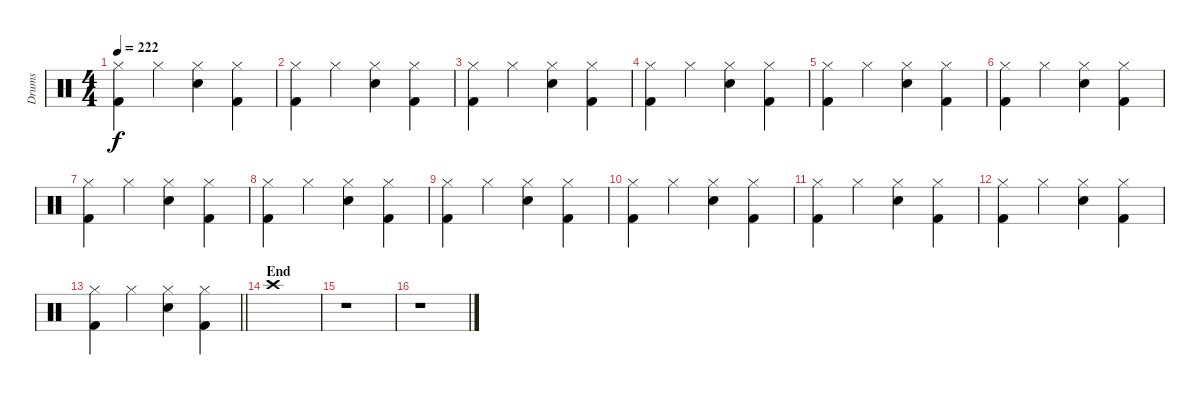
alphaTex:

\track ("Drums" "Drums") {instrument percussion}
\staff {score}
\articulation defaults
\ts (4 4)
\tempo 222
\clef neutral
\ks c
("Hi-Hat (closed)" "Kick (hit) 2").4{dy f} "Hi-Hat (closed)".4 ("Hi-Hat (closed)" "Electric Snare (hit)").4 ("Hi-Hat (closed)" "Kick (hit) 2").4 |
("Hi-Hat (closed)" "Kick (hit) 2").4 "Hi-Hat (closed)".4 ("Hi-Hat (closed)" "Electric Snare (hit)").4 ("Hi-Hat (closed)" "Kick (hit) 2").4 |
("Hi-Hat (closed)" "Kick (hit) 2").4 "Hi-Hat (closed)".4 ("Hi-Hat (closed)" "Electric Snare (hit)").4 ("Hi-Hat (closed)" "Kick (hit) 2").4 |
("Hi-Hat (closed)" "Kick (hit) 2").4 "Hi-Hat (closed)".4 ("Hi-Hat (closed)" "Electric Snare (hit)").4 ("Hi-Hat (closed)" "Kick (hit) 2").4 |
("Hi-Hat (closed)" "Kick (hit) 2").4 "Hi-Hat (closed)".4 ("Hi-Hat (closed)" "Electric Snare (hit)").4 ("Hi-Hat (closed)" "Kick (hit) 2").4 |
("Hi-Hat (closed)" "Kick (hit) 2").4 "Hi-Hat (closed)".4 ("Hi-Hat (closed)" "Electric Snare (hit)").4 ("Hi-Hat (closed)" "Kick (hit) 2").4 |
("Hi-Hat (closed)" "Kick (hit) 2").4 "Hi-Hat (closed)".4 ("Hi-Hat (closed)" "Electric Snare (hit)").4 ("Hi-Hat (closed)" "Kick (hit) 2").4 |
("Hi-Hat (closed)" "Kick (hit) 2").4 "Hi-Hat (closed)".4 ("Hi-Hat (closed)" "Electric Snare (hit)").4 ("Hi-Hat (closed)" "Kick (hit) 2").4 |
("Hi-Hat (closed)" "Kick (hit) 2").4 "Hi-Hat (closed)".4 ("Hi-Hat (closed)" "Electric Snare (hit)").4 ("Hi-Hat (closed)" "Kick (hit) 2").4 |
("Hi-Hat (closed)" "Kick (hit) 2").4 "Hi-Hat (closed)".4 ("Hi-Hat (closed)" "Electric Snare (hit)").4 ("Hi-Hat (closed)" "Kick (hit) 2").4 |
("Hi-Hat (closed)" "Kick (hit) 2").4 "Hi-Hat (closed)".4 ("Hi-Hat (closed)" "Electric Snare (hit)").4 ("Hi-Hat (closed)" "Kick (hit) 2").4 |
("Hi-Hat (closed)" "Kick (hit) 2").4 "Hi-Hat (closed)".4 ("Hi-Hat (closed)" "Electric Snare (hit)").4 ("Hi-Hat (closed)" "Kick (hit) 2").4 |
\barLineRight lightlight
("Hi-Hat (closed)" "Kick (hit) 2").4 "Hi-Hat (closed)".4 ("Hi-Hat (closed)" "Electric Snare (hit)").4 ("Hi-Hat (closed)" "Kick (hit) 2").4 |
\section ("" "End")
"Crash high (hit)".1 |
r.1 |
r.1
